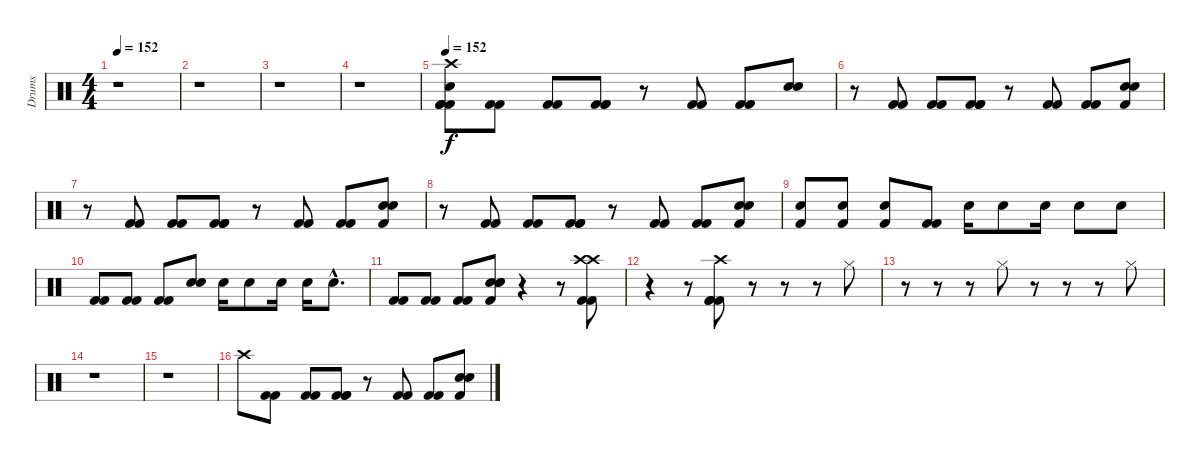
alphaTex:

\track ("Drums" "Drums") {instrument percussion}
\staff {score}
\articulation defaults
\ts (4 4)
\tempo 152
\tempo 120
\tempo 152
\clef neutral
\ks c
r.1{dy f} |
r.1 |
r.1 |
r.1 |
\tempo 152
("Crash high (hit)" "Snare (hit) 2" "Kick (hit) 2" "Kick (hit) 2" "Kick (hit) 2").8 ("Kick (hit) 2" "Kick (hit) 2").8 ("Kick (hit) 2" "Kick (hit) 2").8 ("Kick (hit) 2" "Kick (hit) 2" "Kick (hit) 2").8 r.8 ("Kick (hit) 2" "Kick (hit) 2").8 ("Kick (hit) 2" "Kick (hit) 2").8 ("Snare (hit) 2" "Snare (hit) 2").8 |
r.8 ("Kick (hit) 2" "Kick (hit) 2").8 ("Kick (hit) 2" "Kick (hit) 2").8 ("Kick (hit) 2" "Kick (hit) 2" "Kick (hit) 2").8 r.8 ("Kick (hit) 2" "Kick (hit) 2").8 ("Kick (hit) 2" "Kick (hit) 2").8 ("Snare (hit) 2" "Snare (hit) 2" "Kick (hit) 2").8 |
r.8 ("Kick (hit) 2" "Kick (hit) 2").8 ("Kick (hit) 2" "Kick (hit) 2").8 ("Kick (hit) 2" "Kick (hit) 2" "Kick (hit) 2").8 r.8 ("Kick (hit) 2" "Kick (hit) 2").8 ("Kick (hit) 2" "Kick (hit) 2").8 ("Snare (hit) 2" "Snare (hit) 2" "Kick (hit) 2").8 |
r.8 ("Kick (hit) 2" "Kick (hit) 2").8 ("Kick (hit) 2" "Kick (hit) 2").8 ("Kick (hit) 2" "Kick (hit) 2" "Kick (hit) 2").8 r.8 ("Kick (hit) 2" "Kick (hit) 2").8 ("Kick (hit) 2" "Kick (hit) 2").8 ("Snare (hit) 2" "Snare (hit) 2" "Kick (hit) 2").8 |
("Snare (hit) 2" "Kick (hit) 2").8 ("Snare (hit) 2" "Kick (hit) 2").8 ("Snare (hit) 2" "Kick (hit) 2").8 ("Kick (hit) 2" "Kick (hit) 2").8 "Snare (hit) 2".16 "Snare (hit) 2".8 "Snare (hit) 2".16 "Snare (hit) 2".8 "Snare (hit) 2".8 |
("Kick (hit) 2" "Kick (hit) 2").8 ("Kick (hit) 2" "Kick (hit) 2").8 ("Kick (hit) 2" "Kick (hit) 2").8 ("Snare (hit) 2" "Snare (hit) 2").8 "Snare (hit) 2".16 "Snare (hit) 2".8 "Snare (hit) 2".16 "Snare (hit) 2".16 "Snare (hit) 2"{hac}.8{d} |
("Kick (hit) 2" "Kick (hit) 2").8 ("Kick (hit) 2" "Kick (hit) 2").8 ("Kick (hit) 2" "Kick (hit) 2").8 ("Kick (hit) 2" "Snare (hit) 2" "Snare (hit) 2" "Snare (hit) 2").8 r.4 r.8 ("Crash high (hit)" "Crash high (hit)" "Kick (hit) 2" "Kick (hit) 2").8 |
r.4 r.8 ("Crash high (hit)" "Kick (hit) 2" "Kick (hit) 2" "Kick (hit) 2").8 r.8 r.8 r.8 "Hi-Hat (closed)".8 |
r.8 r.8 r.8 "Hi-Hat (closed)".8 r.8 r.8 r.8 "Hi-Hat (closed)".8 |
r.1 |
r.1 |
"Crash high (hit)".8 ("Kick (hit) 2" "Kick (hit) 2").8 ("Kick (hit) 2" "Kick (hit) 2").8 ("Kick (hit) 2" "Kick (hit) 2" "Kick (hit) 2").8 r.8 ("Kick (hit) 2" "Kick (hit) 2").8 ("Kick (hit) 2" "Kick (hit) 2").8 ("Snare (hit) 2" "Snare (hit) 2" "Kick (hit) 2").8
